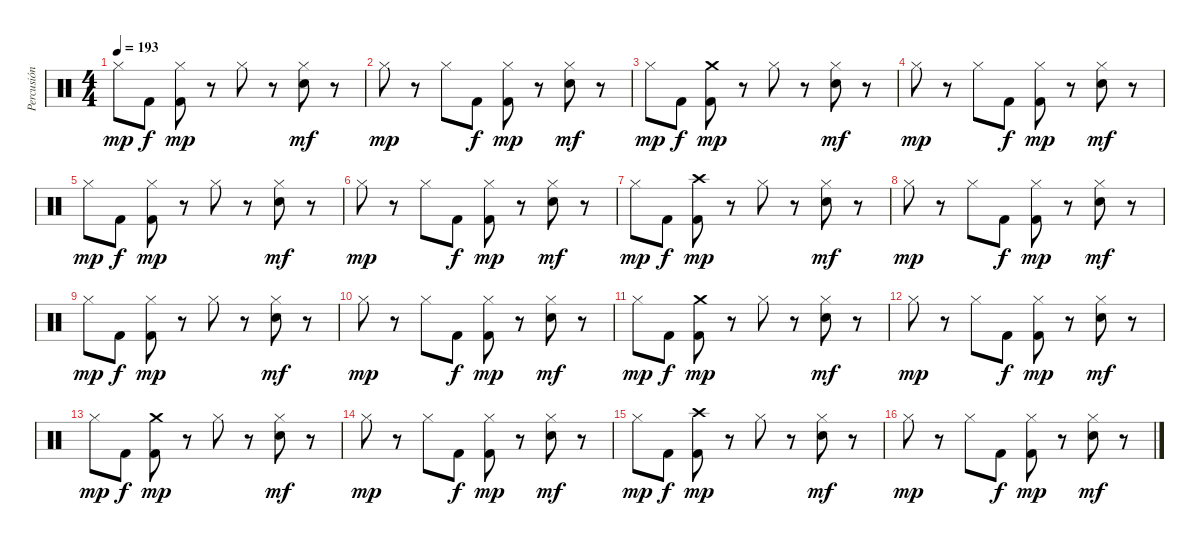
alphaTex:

\track ("Percusión" "Percusión") {instrument percussion}
\staff {score}
\articulation defaults
\ts (4 4)
\tempo 193
\clef neutral
\ks c "Hi-Hat (closed)".8{dy mp} "Kick (hit) 2".8{dy f}
("Hi-Hat (closed)" "Kick (hit) 2").8{dy mp} r.8 "Hi-Hat (closed)".8 r.8 ("Hi-Hat (closed)" "Electric Snare (hit)").8{dy mf} r.8 |
"Hi-Hat (closed)".8{dy mp} r.8 "Hi-Hat (closed)".8 "Kick (hit) 2".8{dy f} ("Hi-Hat (closed)" "Kick (hit) 2").8{dy mp} r.8 ("Hi-Hat (closed)" "Electric Snare (hit)").8{dy mf} r.8 |
"Hi-Hat (closed)".8{dy mp} "Kick (hit) 2".8{dy f} ("Crash medium (hit)" "Kick (hit) 2").8{dy mp} r.8 "Hi-Hat (closed)".8 r.8 ("Hi-Hat (closed)" "Electric Snare (hit)").8{dy mf} r.8 |
"Hi-Hat (closed)".8{dy mp} r.8 "Hi-Hat (closed)".8 "Kick (hit) 2".8{dy f} ("Hi-Hat (closed)" "Kick (hit) 2").8{dy mp} r.8 ("Hi-Hat (closed)" "Electric Snare (hit)").8{dy mf} r.8 |
"Hi-Hat (closed)".8{dy mp} "Kick (hit) 2".8{dy f} ("Hi-Hat (closed)" "Kick (hit) 2").8{dy mp} r.8 "Hi-Hat (closed)".8 r.8 ("Hi-Hat (closed)" "Electric Snare (hit)").8{dy mf} r.8 |
"Hi-Hat (closed)".8{dy mp} r.8 "Hi-Hat (closed)".8 "Kick (hit) 2".8{dy f} ("Hi-Hat (closed)" "Kick (hit) 2").8{dy mp} r.8 ("Hi-Hat (closed)" "Electric Snare (hit)").8{dy mf} r.8 |
"Hi-Hat (closed)".8{dy mp} "Kick (hit) 2".8{dy f} ("Crash high (hit)" "Kick (hit) 2").8{dy mp} r.8 "Hi-Hat (closed)".8 r.8 ("Hi-Hat (closed)" "Electric Snare (hit)").8{dy mf} r.8 |
"Hi-Hat (closed)".8{dy mp} r.8 "Hi-Hat (closed)".8 "Kick (hit) 2".8{dy f} ("Hi-Hat (closed)" "Kick (hit) 2").8{dy mp} r.8 ("Hi-Hat (closed)" "Electric Snare (hit)").8{dy mf} r.8 |
"Hi-Hat (closed)".8{dy mp} "Kick (hit) 2".8{dy f} ("Hi-Hat (closed)" "Kick (hit) 2").8{dy mp} r.8 "Hi-Hat (closed)".8 r.8 ("Hi-Hat (closed)" "Electric Snare (hit)").8{dy mf} r.8 |
"Hi-Hat (closed)".8{dy mp} r.8 "Hi-Hat (closed)".8 "Kick (hit) 2".8{dy f} ("Hi-Hat (closed)" "Kick (hit) 2").8{dy mp} r.8 ("Hi-Hat (closed)" "Electric Snare (hit)").8{dy mf} r.8 |
"Hi-Hat (closed)".8{dy mp} "Kick (hit) 2".8{dy f} ("Crash medium (hit)" "Kick (hit) 2").8{dy mp} r.8 "Hi-Hat (closed)".8 r.8 ("Hi-Hat (closed)" "Electric Snare (hit)").8{dy mf} r.8 |
"Hi-Hat (closed)".8{dy mp} r.8 "Hi-Hat (closed)".8 "Kick (hit) 2".8{dy f} ("Hi-Hat (closed)" "Kick (hit) 2").8{dy mp} r.8 ("Hi-Hat (closed)" "Electric Snare (hit)").8{dy mf} r.8 |
"Hi-Hat (closed)".8{dy mp} "Kick (hit) 2".8{dy f} ("Crash medium (hit)" "Kick (hit) 2").8{dy mp} r.8 "Hi-Hat (closed)".8 r.8 ("Hi-Hat (closed)" "Electric Snare (hit)").8{dy mf} r.8 |
"Hi-Hat (closed)".8{dy mp} r.8 "Hi-Hat (closed)".8 "Kick (hit) 2".8{dy f} ("Hi-Hat (closed)" "Kick (hit) 2").8{dy mp} r.8 ("Hi-Hat (closed)" "Electric Snare (hit)").8{dy mf} r.8 |
"Hi-Hat (closed)".8{dy mp} "Kick (hit) 2".8{dy f} ("Crash high (hit)" "Kick (hit) 2").8{dy mp} r.8 "Hi-Hat (closed)".8 r.8 ("Hi-Hat (closed)" "Electric Snare (hit)").8{dy mf} r.8 |
"Hi-Hat (closed)".8{dy mp} r.8 "Hi-Hat (closed)".8 "Kick (hit) 2".8{dy f} ("Hi-Hat (closed)" "Kick (hit) 2").8{dy mp} r.8 ("Hi-Hat (closed)" "Electric Snare (hit)").8{dy mf} r.8
